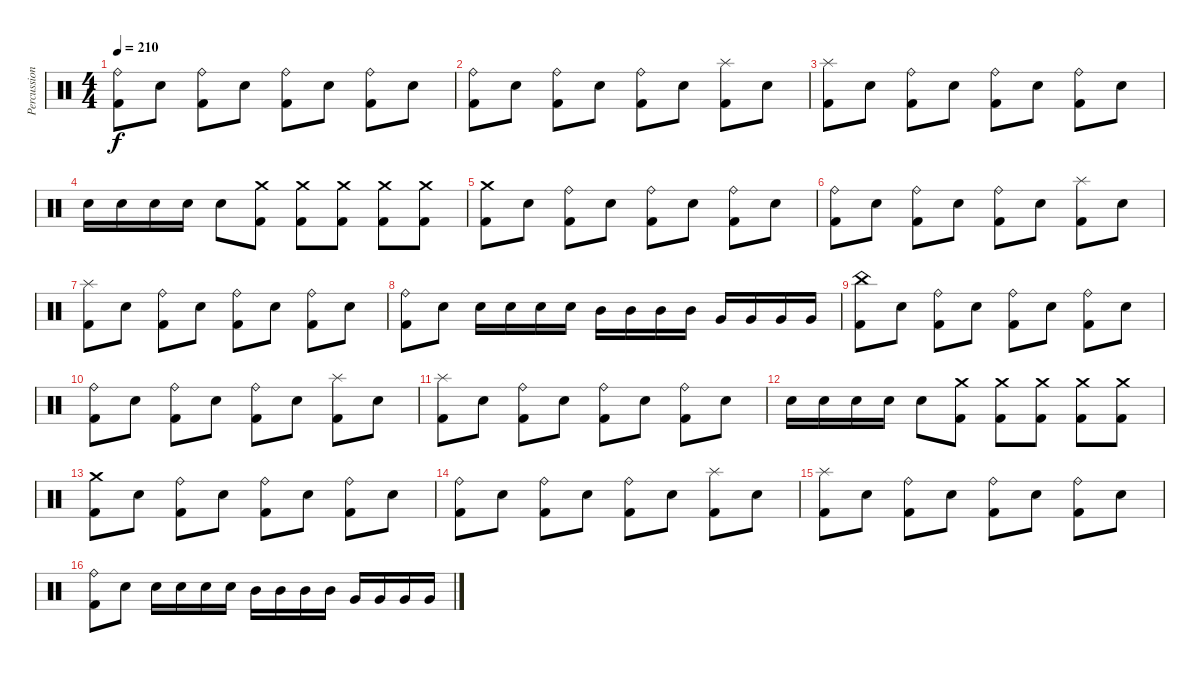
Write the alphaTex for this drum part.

\track ("Percussion" "Percussion") {instrument percussion}
\staff {score}
\articulation defaults
\ts (4 4)
\tempo 210
\clef neutral
\ks c
("Ride (bell)" "Kick (hit) 2").8{dy f} "Electric Snare (hit)".8 ("Ride (bell)" "Kick (hit) 2").8 "Electric Snare (hit)".8 ("Ride (bell)" "Kick (hit) 2").8 "Electric Snare (hit)".8 ("Ride (bell)" "Kick (hit) 2").8 "Electric Snare (hit)".8 |
("Ride (bell)" "Kick (hit) 2").8 "Electric Snare (hit)".8 ("Ride (bell)" "Kick (hit) 2").8 "Electric Snare (hit)".8 ("Ride (bell)" "Kick (hit) 2").8 "Electric Snare (hit)".8 ("Splash (hit)" "Kick (hit) 2").8 "Electric Snare (hit)".8 |
("Splash (hit)" "Kick (hit) 2").8 "Electric Snare (hit)".8 ("Ride (bell)" "Kick (hit) 2").8 "Electric Snare (hit)".8 ("Ride (bell)" "Kick (hit) 2").8 "Electric Snare (hit)".8 ("Ride (bell)" "Kick (hit) 2").8 "Electric Snare (hit)".8 |
"Electric Snare (hit)".16 "Electric Snare (hit)".16 "Electric Snare (hit)".16 "Electric Snare (hit)".16 "Electric Snare (hit)".8 ("Crash medium (hit)" "Kick (hit) 2").8 ("Crash medium (hit)" "Kick (hit) 2").8 ("Crash medium (hit)" "Kick (hit) 2").8 ("Crash medium (hit)" "Kick (hit) 2").8 ("Crash medium (hit)" "Kick (hit) 2").8 |
("Crash medium (hit)" "Kick (hit) 2").8 "Electric Snare (hit)".8 ("Ride (bell)" "Kick (hit) 2").8 "Electric Snare (hit)".8 ("Ride (bell)" "Kick (hit) 2").8 "Electric Snare (hit)".8 ("Ride (bell)" "Kick (hit) 2").8 "Electric Snare (hit)".8 |
("Ride (bell)" "Kick (hit) 2").8 "Electric Snare (hit)".8 ("Ride (bell)" "Kick (hit) 2").8 "Electric Snare (hit)".8 ("Ride (bell)" "Kick (hit) 2").8 "Electric Snare (hit)".8 ("Splash (hit)" "Kick (hit) 2").8 "Electric Snare (hit)".8 |
("Splash (hit)" "Kick (hit) 2").8 "Electric Snare (hit)".8 ("Ride (bell)" "Kick (hit) 2").8 "Electric Snare (hit)".8 ("Ride (bell)" "Kick (hit) 2").8 "Electric Snare (hit)".8 ("Ride (bell)" "Kick (hit) 2").8 "Electric Snare (hit)".8 |
("Ride (bell)" "Kick (hit) 2").8 "Electric Snare (hit)".8 "Electric Snare (hit)".16 "Electric Snare (hit)".16 "Electric Snare (hit)".16 "Electric Snare (hit)".16 "Mid Tom (hit)".16 "Mid Tom (hit)".16 "Mid Tom (hit)".16 "Mid Tom (hit)".16 "Very Low Tom (hit)".16 "Very Low Tom (hit)".16 "Very Low Tom (hit)".16 "Very Low Tom (hit)".16 |
("China (hit)" "Kick (hit) 2").8 "Electric Snare (hit)".8 ("Ride (bell)" "Kick (hit) 2").8 "Electric Snare (hit)".8 ("Ride (bell)" "Kick (hit) 2").8 "Electric Snare (hit)".8 ("Ride (bell)" "Kick (hit) 2").8 "Electric Snare (hit)".8 |
("Ride (bell)" "Kick (hit) 2").8 "Electric Snare (hit)".8 ("Ride (bell)" "Kick (hit) 2").8 "Electric Snare (hit)".8 ("Ride (bell)" "Kick (hit) 2").8 "Electric Snare (hit)".8 ("Splash (hit)" "Kick (hit) 2").8 "Electric Snare (hit)".8 |
("Splash (hit)" "Kick (hit) 2").8 "Electric Snare (hit)".8 ("Ride (bell)" "Kick (hit) 2").8 "Electric Snare (hit)".8 ("Ride (bell)" "Kick (hit) 2").8 "Electric Snare (hit)".8 ("Ride (bell)" "Kick (hit) 2").8 "Electric Snare (hit)".8 |
"Electric Snare (hit)".16 "Electric Snare (hit)".16 "Electric Snare (hit)".16 "Electric Snare (hit)".16 "Electric Snare (hit)".8 ("Crash medium (hit)" "Kick (hit) 2").8 ("Crash medium (hit)" "Kick (hit) 2").8 ("Crash medium (hit)" "Kick (hit) 2").8 ("Crash medium (hit)" "Kick (hit) 2").8 ("Crash medium (hit)" "Kick (hit) 2").8 |
("Crash medium (hit)" "Kick (hit) 2").8 "Electric Snare (hit)".8 ("Ride (bell)" "Kick (hit) 2").8 "Electric Snare (hit)".8 ("Ride (bell)" "Kick (hit) 2").8 "Electric Snare (hit)".8 ("Ride (bell)" "Kick (hit) 2").8 "Electric Snare (hit)".8 |
("Ride (bell)" "Kick (hit) 2").8 "Electric Snare (hit)".8 ("Ride (bell)" "Kick (hit) 2").8 "Electric Snare (hit)".8 ("Ride (bell)" "Kick (hit) 2").8 "Electric Snare (hit)".8 ("Splash (hit)" "Kick (hit) 2").8 "Electric Snare (hit)".8 |
("Splash (hit)" "Kick (hit) 2").8 "Electric Snare (hit)".8 ("Ride (bell)" "Kick (hit) 2").8 "Electric Snare (hit)".8 ("Ride (bell)" "Kick (hit) 2").8 "Electric Snare (hit)".8 ("Ride (bell)" "Kick (hit) 2").8 "Electric Snare (hit)".8 |
("Ride (bell)" "Kick (hit) 2").8 "Electric Snare (hit)".8 "Electric Snare (hit)".16 "Electric Snare (hit)".16 "Electric Snare (hit)".16 "Electric Snare (hit)".16 "Mid Tom (hit)".16 "Mid Tom (hit)".16 "Mid Tom (hit)".16 "Mid Tom (hit)".16 "Very Low Tom (hit)".16 "Very Low Tom (hit)".16 "Very Low Tom (hit)".16 "Very Low Tom (hit)".16
